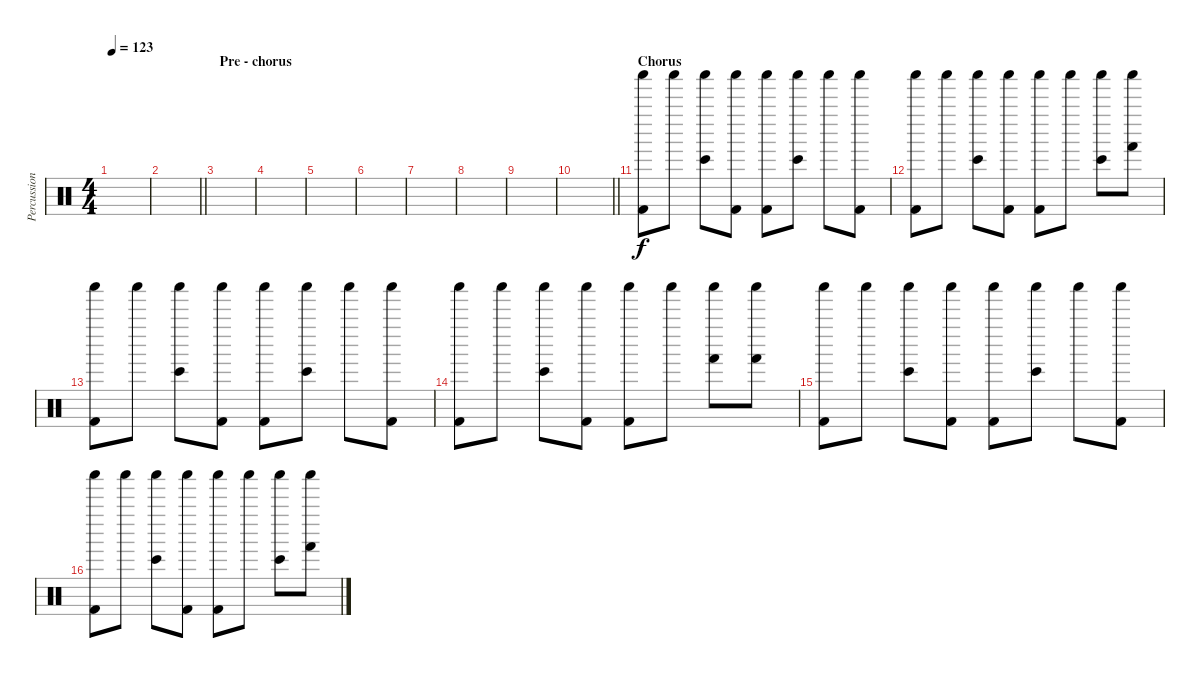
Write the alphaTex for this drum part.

\track ("Percussion" "Percussion") {instrument percussion}
\staff {score}
\articulation defaults
\ts (4 4)
\tempo 123
\clef neutral
\ks c
|
\barLineRight lightlight
|
\section ("" "Pre - chorus")
|
|
|
|
|
|
|
\barLineRight lightlight
|
\section ("" "Chorus")
("Shaker (hit)" "Kick (hit) 2").8 "Shaker (hit)".8 ("Shaker (hit)" "Bongo High (hit)").8 ("Shaker (hit)" "Kick (hit) 2").8 ("Shaker (hit)" "Kick (hit) 2").8 ("Shaker (hit)" "Bongo High (hit)").8 "Shaker (hit)".8 ("Shaker (hit)" "Kick (hit) 2").8 |
("Shaker (hit)" "Kick (hit) 2").8 "Shaker (hit)".8 ("Shaker (hit)" "Bongo High (hit)").8 ("Shaker (hit)" "Kick (hit) 2").8 ("Shaker (hit)" "Kick (hit) 2").8 "Shaker (hit)".8 ("Shaker (hit)" "Bongo High (hit)").8 ("Shaker (hit)" "Hand (hit)").8 |
("Shaker (hit)" "Kick (hit) 2").8 "Shaker (hit)".8 ("Shaker (hit)" "Bongo High (hit)").8 ("Shaker (hit)" "Kick (hit) 2").8 ("Shaker (hit)" "Kick (hit) 2").8 ("Shaker (hit)" "Bongo High (hit)").8 "Shaker (hit)".8 ("Shaker (hit)" "Kick (hit) 2").8 |
("Shaker (hit)" "Kick (hit) 2").8 "Shaker (hit)".8 ("Shaker (hit)" "Bongo High (hit)").8 ("Shaker (hit)" "Kick (hit) 2").8 ("Shaker (hit)" "Kick (hit) 2").8 "Shaker (hit)".8 ("Shaker (hit)" "Hand (hit)").8 ("Shaker (hit)" "Hand (hit)").8 |
("Shaker (hit)" "Kick (hit) 2").8 "Shaker (hit)".8 ("Shaker (hit)" "Bongo High (hit)").8 ("Shaker (hit)" "Kick (hit) 2").8 ("Shaker (hit)" "Kick (hit) 2").8 ("Shaker (hit)" "Bongo High (hit)").8 "Shaker (hit)".8 ("Shaker (hit)" "Kick (hit) 2").8 |
("Shaker (hit)" "Kick (hit) 2").8 "Shaker (hit)".8 ("Shaker (hit)" "Bongo High (hit)").8 ("Shaker (hit)" "Kick (hit) 2").8 ("Shaker (hit)" "Kick (hit) 2").8 "Shaker (hit)".8 ("Shaker (hit)" "Bongo High (hit)").8 ("Shaker (hit)" "Hand (hit)").8
